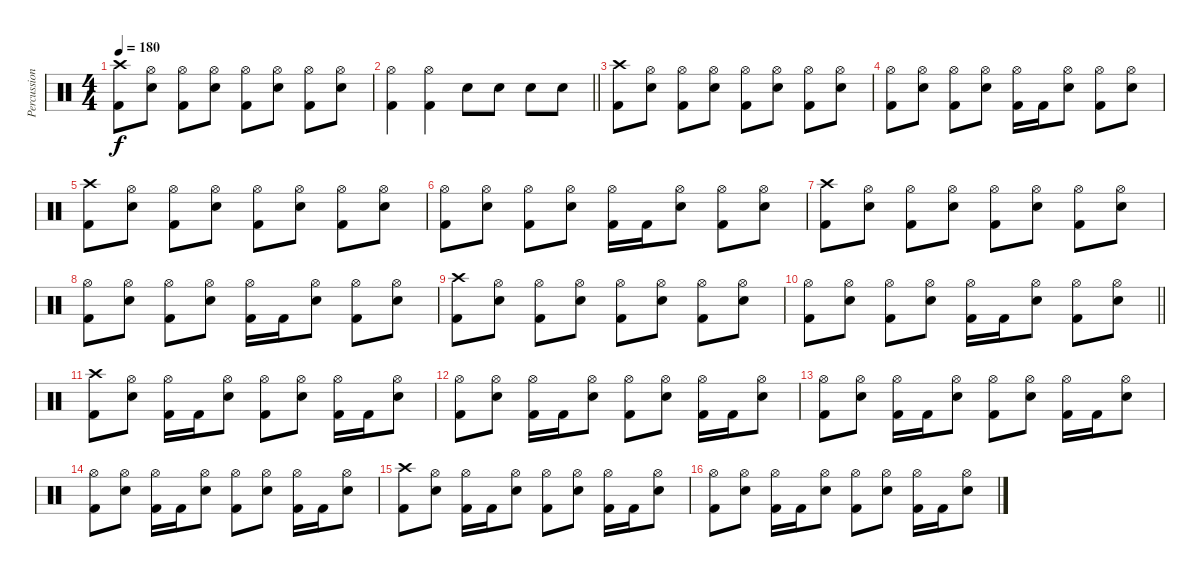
\track ("Percussion" "Percussion") {instrument percussion}
\staff {score}
\articulation defaults
\ts (4 4)
\tempo 180
\clef neutral
\ks c
("Crash high (hit)" "Kick (hit) 2").8{dy f} ("Hi-Hat (open)" "Electric Snare (hit)").8 ("Hi-Hat (open)" "Kick (hit) 2").8 ("Hi-Hat (open)" "Electric Snare (hit)").8 ("Hi-Hat (open)" "Kick (hit) 2").8 ("Hi-Hat (open)" "Electric Snare (hit)").8 ("Hi-Hat (open)" "Kick (hit) 2").8 ("Hi-Hat (open)" "Electric Snare (hit)").8 |
\barLineRight lightlight
("Hi-Hat (open)" "Kick (hit) 2").4 ("Hi-Hat (open)" "Kick (hit) 2").4 "Electric Snare (hit)".8 "Electric Snare (hit)".8 "Electric Snare (hit)".8 "Electric Snare (hit)".8 |
\section ("" "")
("Crash high (hit)" "Kick (hit) 2").8 ("Hi-Hat (open)" "Electric Snare (hit)").8 ("Hi-Hat (open)" "Kick (hit) 2").8 ("Hi-Hat (open)" "Electric Snare (hit)").8 ("Hi-Hat (open)" "Kick (hit) 2").8 ("Hi-Hat (open)" "Electric Snare (hit)").8 ("Hi-Hat (open)" "Kick (hit) 2").8 ("Hi-Hat (open)" "Electric Snare (hit)").8 |
("Hi-Hat (open)" "Kick (hit) 2").8 ("Hi-Hat (open)" "Electric Snare (hit)").8 ("Hi-Hat (open)" "Kick (hit) 2").8 ("Hi-Hat (open)" "Electric Snare (hit)").8 ("Hi-Hat (open)" "Kick (hit) 2").16 "Kick (hit) 2".16 ("Hi-Hat (open)" "Electric Snare (hit)").8 ("Hi-Hat (open)" "Kick (hit) 2").8 ("Hi-Hat (open)" "Electric Snare (hit)").8 |
("Crash high (hit)" "Kick (hit) 2").8 ("Hi-Hat (open)" "Electric Snare (hit)").8 ("Hi-Hat (open)" "Kick (hit) 2").8 ("Hi-Hat (open)" "Electric Snare (hit)").8 ("Hi-Hat (open)" "Kick (hit) 2").8 ("Hi-Hat (open)" "Electric Snare (hit)").8 ("Hi-Hat (open)" "Kick (hit) 2").8 ("Hi-Hat (open)" "Electric Snare (hit)").8 |
("Hi-Hat (open)" "Kick (hit) 2").8 ("Hi-Hat (open)" "Electric Snare (hit)").8 ("Hi-Hat (open)" "Kick (hit) 2").8 ("Hi-Hat (open)" "Electric Snare (hit)").8 ("Hi-Hat (open)" "Kick (hit) 2").16 "Kick (hit) 2".16 ("Hi-Hat (open)" "Electric Snare (hit)").8 ("Hi-Hat (open)" "Kick (hit) 2").8 ("Hi-Hat (open)" "Electric Snare (hit)").8 |
("Crash high (hit)" "Kick (hit) 2").8 ("Hi-Hat (open)" "Electric Snare (hit)").8 ("Hi-Hat (open)" "Kick (hit) 2").8 ("Hi-Hat (open)" "Electric Snare (hit)").8 ("Hi-Hat (open)" "Kick (hit) 2").8 ("Hi-Hat (open)" "Electric Snare (hit)").8 ("Hi-Hat (open)" "Kick (hit) 2").8 ("Hi-Hat (open)" "Electric Snare (hit)").8 |
("Hi-Hat (open)" "Kick (hit) 2").8 ("Hi-Hat (open)" "Electric Snare (hit)").8 ("Hi-Hat (open)" "Kick (hit) 2").8 ("Hi-Hat (open)" "Electric Snare (hit)").8 ("Hi-Hat (open)" "Kick (hit) 2").16 "Kick (hit) 2".16 ("Hi-Hat (open)" "Electric Snare (hit)").8 ("Hi-Hat (open)" "Kick (hit) 2").8 ("Hi-Hat (open)" "Electric Snare (hit)").8 |
("Crash high (hit)" "Kick (hit) 2").8 ("Hi-Hat (open)" "Electric Snare (hit)").8 ("Hi-Hat (open)" "Kick (hit) 2").8 ("Hi-Hat (open)" "Electric Snare (hit)").8 ("Hi-Hat (open)" "Kick (hit) 2").8 ("Hi-Hat (open)" "Electric Snare (hit)").8 ("Hi-Hat (open)" "Kick (hit) 2").8 ("Hi-Hat (open)" "Electric Snare (hit)").8 |
\barLineRight lightlight
("Hi-Hat (open)" "Kick (hit) 2").8 ("Hi-Hat (open)" "Electric Snare (hit)").8 ("Hi-Hat (open)" "Kick (hit) 2").8 ("Hi-Hat (open)" "Electric Snare (hit)").8 ("Hi-Hat (open)" "Kick (hit) 2").16 "Kick (hit) 2".16 ("Hi-Hat (open)" "Electric Snare (hit)").8 ("Hi-Hat (open)" "Kick (hit) 2").8 ("Hi-Hat (open)" "Electric Snare (hit)").8 |
\section ("" "")
("Crash high (hit)" "Kick (hit) 2").8 ("Hi-Hat (open)" "Electric Snare (hit)").8 ("Hi-Hat (open)" "Kick (hit) 2").16 "Kick (hit) 2".16 ("Hi-Hat (open)" "Electric Snare (hit)").8 ("Hi-Hat (open)" "Kick (hit) 2").8 ("Hi-Hat (open)" "Electric Snare (hit)").8 ("Hi-Hat (open)" "Kick (hit) 2").16 "Kick (hit) 2".16 ("Hi-Hat (open)" "Electric Snare (hit)").8 |
("Hi-Hat (open)" "Kick (hit) 2").8 ("Hi-Hat (open)" "Electric Snare (hit)").8 ("Hi-Hat (open)" "Kick (hit) 2").16 "Kick (hit) 2".16 ("Hi-Hat (open)" "Electric Snare (hit)").8 ("Hi-Hat (open)" "Kick (hit) 2").8 ("Hi-Hat (open)" "Electric Snare (hit)").8 ("Hi-Hat (open)" "Kick (hit) 2").16 "Kick (hit) 2".16 ("Hi-Hat (open)" "Electric Snare (hit)").8 |
("Hi-Hat (open)" "Kick (hit) 2").8 ("Hi-Hat (open)" "Electric Snare (hit)").8 ("Hi-Hat (open)" "Kick (hit) 2").16 "Kick (hit) 2".16 ("Hi-Hat (open)" "Electric Snare (hit)").8 ("Hi-Hat (open)" "Kick (hit) 2").8 ("Hi-Hat (open)" "Electric Snare (hit)").8 ("Hi-Hat (open)" "Kick (hit) 2").16 "Kick (hit) 2".16 ("Hi-Hat (open)" "Electric Snare (hit)").8 |
("Hi-Hat (open)" "Kick (hit) 2").8 ("Hi-Hat (open)" "Electric Snare (hit)").8 ("Hi-Hat (open)" "Kick (hit) 2").16 "Kick (hit) 2".16 ("Hi-Hat (open)" "Electric Snare (hit)").8 ("Hi-Hat (open)" "Kick (hit) 2").8 ("Hi-Hat (open)" "Electric Snare (hit)").8 ("Hi-Hat (open)" "Kick (hit) 2").16 "Kick (hit) 2".16 ("Hi-Hat (open)" "Electric Snare (hit)").8 |
("Crash high (hit)" "Kick (hit) 2").8 ("Hi-Hat (open)" "Electric Snare (hit)").8 ("Hi-Hat (open)" "Kick (hit) 2").16 "Kick (hit) 2".16 ("Hi-Hat (open)" "Electric Snare (hit)").8 ("Hi-Hat (open)" "Kick (hit) 2").8 ("Hi-Hat (open)" "Electric Snare (hit)").8 ("Hi-Hat (open)" "Kick (hit) 2").16 "Kick (hit) 2".16 ("Hi-Hat (open)" "Electric Snare (hit)").8 |
("Hi-Hat (open)" "Kick (hit) 2").8 ("Hi-Hat (open)" "Electric Snare (hit)").8 ("Hi-Hat (open)" "Kick (hit) 2").16 "Kick (hit) 2".16 ("Hi-Hat (open)" "Electric Snare (hit)").8 ("Hi-Hat (open)" "Kick (hit) 2").8 ("Hi-Hat (open)" "Electric Snare (hit)").8 ("Hi-Hat (open)" "Kick (hit) 2").16 "Kick (hit) 2".16 ("Hi-Hat (open)" "Electric Snare (hit)").8
